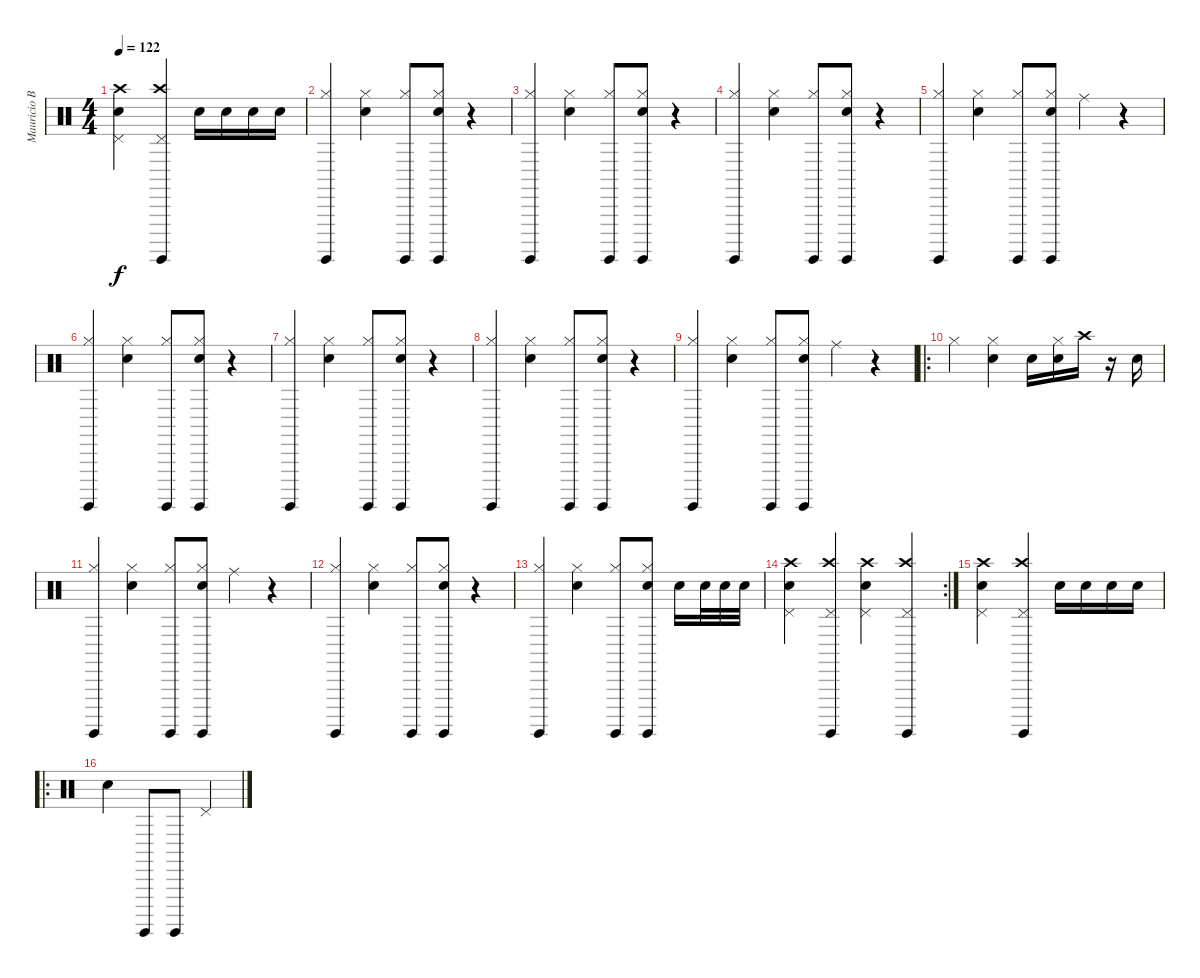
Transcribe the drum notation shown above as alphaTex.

\track ("Mauricio Basualto" "Mauricio B") {instrument percussion}
\staff {score}
\articulation defaults
\ts (4 4)
\tempo 122
\clef neutral
\ks c
("Crash high (hit)" "Snare (hit) 2" "Pedal Hi-Hat (hit)").4{dy f} ("Crash high (hit)" "Surdo (hit)" "Pedal Hi-Hat (hit)").4 "Snare (hit) 2".16 "Snare (hit) 2".16 "Snare (hit) 2".16 "Snare (hit) 2".16 |
("Surdo (hit)" "Hi-Hat (closed)").4 ("Hi-Hat (closed)" "Snare (hit) 2").4 ("Surdo (hit)" "Hi-Hat (closed)").8 ("Surdo (hit)" "Hi-Hat (closed)" "Snare (hit) 2").8 r.4 |
("Surdo (hit)" "Hi-Hat (closed)").4 ("Hi-Hat (closed)" "Snare (hit) 2").4 ("Surdo (hit)" "Hi-Hat (closed)").8 ("Surdo (hit)" "Hi-Hat (closed)" "Snare (hit) 2").8 r.4 |
("Surdo (hit)" "Hi-Hat (closed)").4 ("Hi-Hat (closed)" "Snare (hit) 2").4 ("Surdo (hit)" "Hi-Hat (closed)").8 ("Surdo (hit)" "Hi-Hat (closed)" "Snare (hit) 2").8 r.4 |
("Surdo (hit)" "Hi-Hat (closed)").4 ("Hi-Hat (closed)" "Snare (hit) 2").4 ("Surdo (hit)" "Hi-Hat (closed)").8 ("Surdo (hit)" "Hi-Hat (closed)" "Snare (hit) 2").8 "Ride (middle)".4 r.4 |
("Surdo (hit)" "Hi-Hat (closed)").4 ("Hi-Hat (closed)" "Snare (hit) 2").4 ("Surdo (hit)" "Hi-Hat (closed)").8 ("Surdo (hit)" "Hi-Hat (closed)" "Snare (hit) 2").8 r.4 |
("Surdo (hit)" "Hi-Hat (closed)").4 ("Hi-Hat (closed)" "Snare (hit) 2").4 ("Surdo (hit)" "Hi-Hat (closed)").8 ("Surdo (hit)" "Hi-Hat (closed)" "Snare (hit) 2").8 r.4 |
("Surdo (hit)" "Hi-Hat (closed)").4 ("Hi-Hat (closed)" "Snare (hit) 2").4 ("Surdo (hit)" "Hi-Hat (closed)").8 ("Surdo (hit)" "Hi-Hat (closed)" "Snare (hit) 2").8 r.4 |
("Surdo (hit)" "Hi-Hat (closed)").4 ("Hi-Hat (closed)" "Snare (hit) 2").4 ("Surdo (hit)" "Hi-Hat (closed)").8 ("Surdo (hit)" "Hi-Hat (closed)" "Snare (hit) 2").8 "Ride (middle)".4 r.4 |
\ro "Hi-Hat (closed)".4
("Hi-Hat (closed)" "Snare (hit) 2").4 "Snare (hit) 2".16 ("Snare (hit) 2" "Hi-Hat (closed)").16 "Crash high (hit)".16 r.16 "Snare (hit) 2".16 |
("Surdo (hit)" "Hi-Hat (closed)").4 ("Hi-Hat (closed)" "Snare (hit) 2").4 ("Surdo (hit)" "Hi-Hat (closed)").8 ("Surdo (hit)" "Hi-Hat (closed)" "Snare (hit) 2").8 "Ride (middle)".4 r.4 |
("Surdo (hit)" "Hi-Hat (closed)").4 ("Hi-Hat (closed)" "Snare (hit) 2").4 ("Surdo (hit)" "Hi-Hat (closed)").8 ("Surdo (hit)" "Hi-Hat (closed)" "Snare (hit) 2").8 r.4 |
("Surdo (hit)" "Hi-Hat (closed)").4 ("Hi-Hat (closed)" "Snare (hit) 2").4 ("Surdo (hit)" "Hi-Hat (closed)").8 ("Surdo (hit)" "Hi-Hat (closed)" "Snare (hit) 2").8 "Snare (hit) 2".16 "Snare (hit) 2".32 "Snare (hit) 2".32 "Snare (hit) 2".32 |
\rc 2
("Crash high (hit)" "Snare (hit) 2" "Pedal Hi-Hat (hit)").4 ("Crash high (hit)" "Surdo (hit)" "Pedal Hi-Hat (hit)").4 ("Crash high (hit)" "Snare (hit) 2" "Pedal Hi-Hat (hit)").4 ("Crash high (hit)" "Surdo (hit)" "Pedal Hi-Hat (hit)").4 |
("Crash high (hit)" "Snare (hit) 2" "Pedal Hi-Hat (hit)").4 ("Crash high (hit)" "Surdo (hit)" "Pedal Hi-Hat (hit)").4 "Snare (hit) 2".16 "Snare (hit) 2".16 "Snare (hit) 2".16 "Snare (hit) 2".16 |
\ro "Snare (hit) 2".4 "Surdo (hit)".8 "Surdo (hit)".8 "Pedal Hi-Hat (hit)".4
